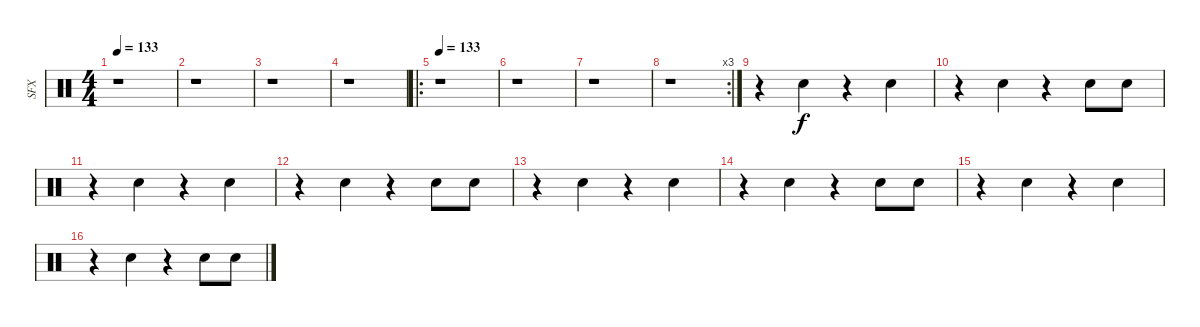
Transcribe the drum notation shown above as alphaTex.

\track ("SFX" "SFX") {instrument percussion}
\staff {score}
\articulation defaults
\ts (4 4)
\tempo 133
\clef neutral
\ks c
r.1{dy f} |
r.1 |
r.1 |
r.1 |
\ro
\tempo 133
r.1 |
r.1 |
r.1 |
\rc 3
r.1 |
r.4 "Hand Clap (hit)".4 r.4 "Hand Clap (hit)".4 |
r.4 "Hand Clap (hit)".4 r.4 "Hand Clap (hit)".8 "Hand Clap (hit)".8 |
r.4 "Hand Clap (hit)".4 r.4 "Hand Clap (hit)".4 |
r.4 "Hand Clap (hit)".4 r.4 "Hand Clap (hit)".8 "Hand Clap (hit)".8 |
r.4 "Hand Clap (hit)".4 r.4 "Hand Clap (hit)".4 |
r.4 "Hand Clap (hit)".4 r.4 "Hand Clap (hit)".8 "Hand Clap (hit)".8 |
r.4 "Hand Clap (hit)".4 r.4 "Hand Clap (hit)".4 |
r.4 "Hand Clap (hit)".4 r.4 "Hand Clap (hit)".8 "Hand Clap (hit)".8
